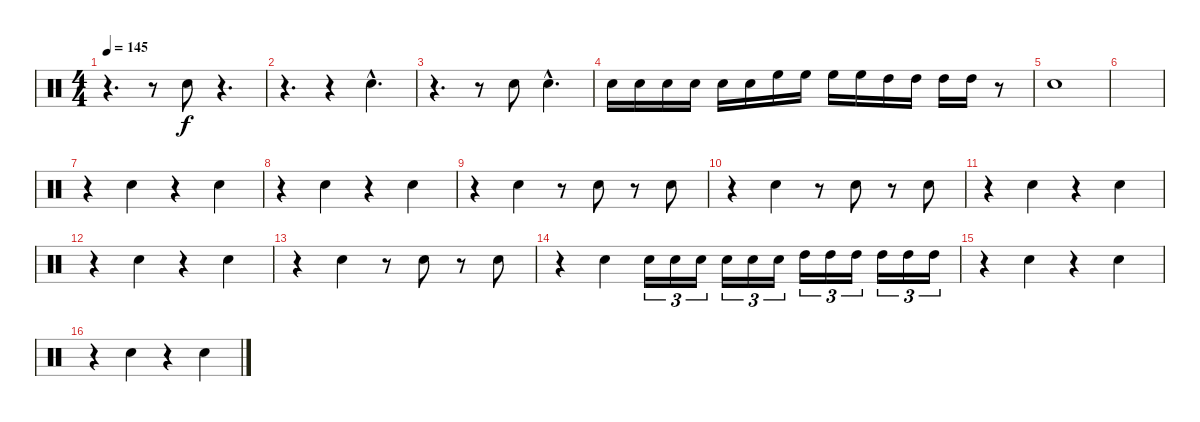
\track "" {instrument percussion}
\staff {score}
\articulation defaults
\ts (4 4)
\tempo 145
\clef neutral
\ks c
r.4{d dy f} r.8 "Electric Snare (hit)".8 r.4{d} |
r.4{d} r.4 "Electric Snare (hit)"{hac}.4{d} |
r.4{d} r.8 "Electric Snare (hit)".8 "Electric Snare (hit)"{hac}.4{d} |
"Electric Snare (hit)".16 "Electric Snare (hit)".16 "Electric Snare (hit)".16 "Electric Snare (hit)".16 "Electric Snare (hit)".16 "Electric Snare (hit)".16 "High Floor Tom (hit)".16 "High Floor Tom (hit)".16 "High Floor Tom (hit)".16 "High Floor Tom (hit)".16 "High Tom (hit)".16 "High Tom (hit)".16 "High Tom (hit)".16 "High Tom (hit)".16 r.8 |
"Electric Snare (hit)".1 |
|
r.4 "Electric Snare (hit)".4 r.4 "Electric Snare (hit)".4 |
r.4 "Electric Snare (hit)".4 r.4 "Electric Snare (hit)".4 |
r.4 "Electric Snare (hit)".4 r.8 "Electric Snare (hit)".8 r.8 "Electric Snare (hit)".8 |
r.4 "Electric Snare (hit)".4 r.8 "Electric Snare (hit)".8 r.8 "Electric Snare (hit)".8 |
r.4 "Electric Snare (hit)".4 r.4 "Electric Snare (hit)".4 |
r.4 "Electric Snare (hit)".4 r.4 "Electric Snare (hit)".4 |
r.4 "Electric Snare (hit)".4 r.8 "Electric Snare (hit)".8 r.8 "Electric Snare (hit)".8 |
r.4 "Electric Snare (hit)".4 "Electric Snare (hit)".16{tu (3 2)} "Electric Snare (hit)".16{tu (3 2)} "Electric Snare (hit)".16{tu (3 2)} "Electric Snare (hit)".16{tu (3 2)} "Electric Snare (hit)".16{tu (3 2)} "Electric Snare (hit)".16{tu (3 2)} "High Tom (hit)".16{tu (3 2)} "High Tom (hit)".16{tu (3 2)} "High Tom (hit)".16{tu (3 2)} "High Tom (hit)".16{tu (3 2)} "High Tom (hit)".16{tu (3 2)} "High Tom (hit)".16{tu (3 2)} |
r.4 "Electric Snare (hit)".4 r.4 "Electric Snare (hit)".4 |
r.4 "Electric Snare (hit)".4 r.4 "Electric Snare (hit)".4
